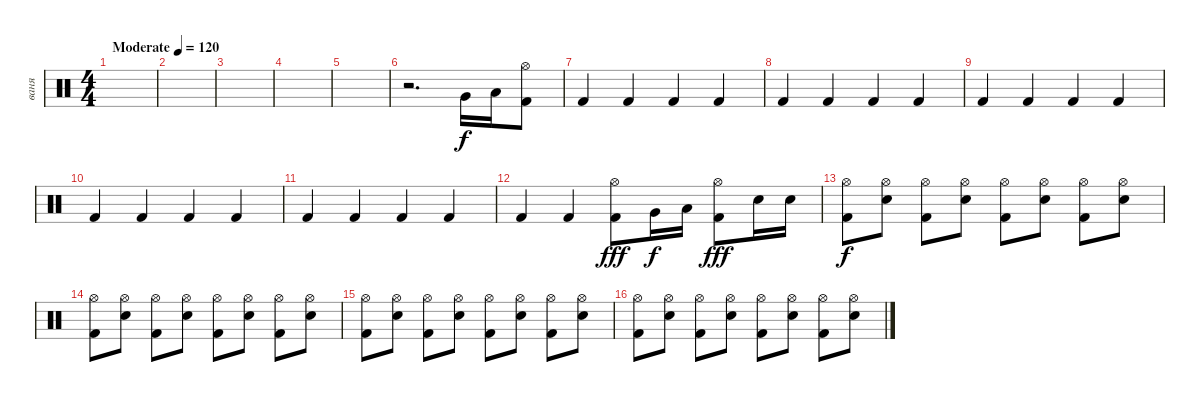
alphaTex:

\track ("ваня" "ваня") {instrument percussion}
\staff {score}
\articulation defaults
\ts (4 4)
\tempo (120 "Moderate")
\clef neutral
\ks c
|
|
|
|
|
r.2{d} "Very Low Tom (hit)".16 "Low Tom (hit)".16 ("Hi-Hat (open)" "Kick (hit) 2").8 |
"Kick (hit) 2".4 "Kick (hit) 2".4 "Kick (hit) 2".4 "Kick (hit) 2".4 |
"Kick (hit) 2".4 "Kick (hit) 2".4 "Kick (hit) 2".4 "Kick (hit) 2".4 |
"Kick (hit) 2".4 "Kick (hit) 2".4 "Kick (hit) 2".4 "Kick (hit) 2".4 |
"Kick (hit) 2".4 "Kick (hit) 2".4 "Kick (hit) 2".4 "Kick (hit) 2".4 |
"Kick (hit) 2".4 "Kick (hit) 2".4 "Kick (hit) 2".4 "Kick (hit) 2".4 |
"Kick (hit) 2".4 "Kick (hit) 2".4 ("Hi-Hat (open)" "Kick (hit) 2").8{dy fff} "Very Low Tom (hit)".16{dy f} "Low Tom (hit)".16 ("Hi-Hat (open)" "Kick (hit) 2").8{dy fff} "Electric Snare (hit)".16 "Electric Snare (hit)".16 |
("Hi-Hat (open)" "Kick (hit) 2").8{dy f} ("Hi-Hat (open)" "Electric Snare (hit)").8 ("Hi-Hat (open)" "Kick (hit) 2").8 ("Hi-Hat (open)" "Electric Snare (hit)").8 ("Hi-Hat (open)" "Kick (hit) 2").8 ("Hi-Hat (open)" "Electric Snare (hit)").8 ("Hi-Hat (open)" "Kick (hit) 2").8 ("Hi-Hat (open)" "Electric Snare (hit)").8 |
("Hi-Hat (open)" "Kick (hit) 2").8 ("Hi-Hat (open)" "Electric Snare (hit)").8 ("Hi-Hat (open)" "Kick (hit) 2").8 ("Hi-Hat (open)" "Electric Snare (hit)").8 ("Hi-Hat (open)" "Kick (hit) 2").8 ("Hi-Hat (open)" "Electric Snare (hit)").8 ("Hi-Hat (open)" "Kick (hit) 2").8 ("Hi-Hat (open)" "Electric Snare (hit)").8 |
("Hi-Hat (open)" "Kick (hit) 2").8 ("Hi-Hat (open)" "Electric Snare (hit)").8 ("Hi-Hat (open)" "Kick (hit) 2").8 ("Hi-Hat (open)" "Electric Snare (hit)").8 ("Hi-Hat (open)" "Kick (hit) 2").8 ("Hi-Hat (open)" "Electric Snare (hit)").8 ("Hi-Hat (open)" "Kick (hit) 2").8 ("Hi-Hat (open)" "Electric Snare (hit)").8 |
("Hi-Hat (open)" "Kick (hit) 2").8 ("Hi-Hat (open)" "Electric Snare (hit)").8 ("Hi-Hat (open)" "Kick (hit) 2").8 ("Hi-Hat (open)" "Electric Snare (hit)").8 ("Hi-Hat (open)" "Kick (hit) 2").8 ("Hi-Hat (open)" "Electric Snare (hit)").8 ("Hi-Hat (open)" "Kick (hit) 2").8 ("Hi-Hat (open)" "Electric Snare (hit)").8
